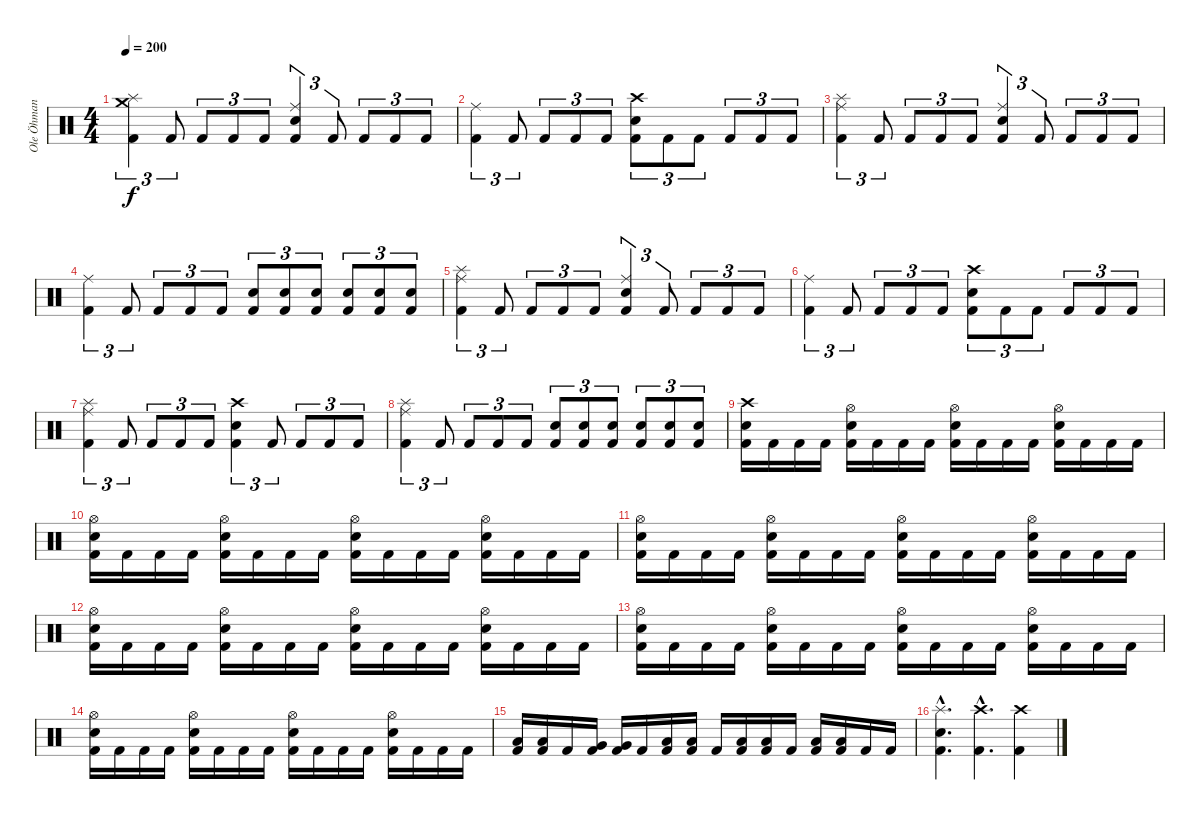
\track ("Ole Öhman" "Ole Öhman") {instrument percussion}
\staff {score}
\articulation defaults
\ts (4 4)
\tempo 200
\clef neutral
\ks c
("Crash medium (hit)" "Splash (hit)" "Kick (hit) 2").4{tu (3 2) dy f} "Kick (hit) 2".8{tu (3 2)} "Kick (hit) 2".8{tu (3 2)} "Kick (hit) 2".8{tu (3 2)} "Kick (hit) 2".8{tu (3 2)} ("Ride (middle)" "Snare (hit) 2" "Kick (hit) 2").4{tu (3 2)} "Kick (hit) 2".8{tu (3 2)} "Kick (hit) 2".8{tu (3 2)} "Kick (hit) 2".8{tu (3 2)} "Kick (hit) 2".8{tu (3 2)} |
("Ride (middle)" "Kick (hit) 2").4{tu (3 2)} "Kick (hit) 2".8{tu (3 2)} "Kick (hit) 2".8{tu (3 2)} "Kick (hit) 2".8{tu (3 2)} "Kick (hit) 2".8{tu (3 2)} ("Crash high (hit)" "Snare (hit) 2" "Kick (hit) 2").8{tu (3 2)} "Kick (hit) 2".8{tu (3 2)} "Kick (hit) 2".8{tu (3 2)} "Kick (hit) 2".8{tu (3 2)} "Kick (hit) 2".8{tu (3 2)} "Kick (hit) 2".8{tu (3 2)} |
("Splash (hit)" "Ride (middle)" "Kick (hit) 2").4{tu (3 2)} "Kick (hit) 2".8{tu (3 2)} "Kick (hit) 2".8{tu (3 2)} "Kick (hit) 2".8{tu (3 2)} "Kick (hit) 2".8{tu (3 2)} ("Ride (middle)" "Snare (hit) 2" "Kick (hit) 2").4{tu (3 2)} "Kick (hit) 2".8{tu (3 2)} "Kick (hit) 2".8{tu (3 2)} "Kick (hit) 2".8{tu (3 2)} "Kick (hit) 2".8{tu (3 2)} |
("Ride (middle)" "Kick (hit) 2").4{tu (3 2)} "Kick (hit) 2".8{tu (3 2)} "Kick (hit) 2".8{tu (3 2)} "Kick (hit) 2".8{tu (3 2)} "Kick (hit) 2".8{tu (3 2)} ("Snare (hit) 2" "Kick (hit) 2").8{tu (3 2)} ("Snare (hit) 2" "Kick (hit) 2").8{tu (3 2)} ("Snare (hit) 2" "Kick (hit) 2").8{tu (3 2)} ("Snare (hit) 2" "Kick (hit) 2").8{tu (3 2)} ("Snare (hit) 2" "Kick (hit) 2").8{tu (3 2)} ("Snare (hit) 2" "Kick (hit) 2").8{tu (3 2)} |
("Splash (hit)" "Ride (middle)" "Kick (hit) 2").4{tu (3 2)} "Kick (hit) 2".8{tu (3 2)} "Kick (hit) 2".8{tu (3 2)} "Kick (hit) 2".8{tu (3 2)} "Kick (hit) 2".8{tu (3 2)} ("Ride (middle)" "Snare (hit) 2" "Kick (hit) 2").4{tu (3 2)} "Kick (hit) 2".8{tu (3 2)} "Kick (hit) 2".8{tu (3 2)} "Kick (hit) 2".8{tu (3 2)} "Kick (hit) 2".8{tu (3 2)} |
("Ride (middle)" "Kick (hit) 2").4{tu (3 2)} "Kick (hit) 2".8{tu (3 2)} "Kick (hit) 2".8{tu (3 2)} "Kick (hit) 2".8{tu (3 2)} "Kick (hit) 2".8{tu (3 2)} ("Crash high (hit)" "Snare (hit) 2" "Kick (hit) 2").8{tu (3 2)} "Kick (hit) 2".8{tu (3 2)} "Kick (hit) 2".8{tu (3 2)} "Kick (hit) 2".8{tu (3 2)} "Kick (hit) 2".8{tu (3 2)} "Kick (hit) 2".8{tu (3 2)} |
("Splash (hit)" "Ride (middle)" "Kick (hit) 2").4{tu (3 2)} "Kick (hit) 2".8{tu (3 2)} "Kick (hit) 2".8{tu (3 2)} "Kick (hit) 2".8{tu (3 2)} "Kick (hit) 2".8{tu (3 2)} ("Crash high (hit)" "Snare (hit) 2" "Kick (hit) 2").4{tu (3 2)} "Kick (hit) 2".8{tu (3 2)} "Kick (hit) 2".8{tu (3 2)} "Kick (hit) 2".8{tu (3 2)} "Kick (hit) 2".8{tu (3 2)} |
("Splash (hit)" "Ride (middle)" "Kick (hit) 2").4{tu (3 2)} "Kick (hit) 2".8{tu (3 2)} "Kick (hit) 2".8{tu (3 2)} "Kick (hit) 2".8{tu (3 2)} "Kick (hit) 2".8{tu (3 2)} ("Snare (hit) 2" "Kick (hit) 2").8{tu (3 2)} ("Snare (hit) 2" "Kick (hit) 2").8{tu (3 2)} ("Snare (hit) 2" "Kick (hit) 2").8{tu (3 2)} ("Snare (hit) 2" "Kick (hit) 2").8{tu (3 2)} ("Snare (hit) 2" "Kick (hit) 2").8{tu (3 2)} ("Snare (hit) 2" "Kick (hit) 2").8{tu (3 2)} |
("Crash high (hit)" "Snare (hit) 2" "Kick (hit) 2").16 "Kick (hit) 2".16 "Kick (hit) 2".16 "Kick (hit) 2".16 ("Hi-Hat (open)" "Snare (hit) 2" "Kick (hit) 2").16 "Kick (hit) 2".16 "Kick (hit) 2".16 "Kick (hit) 2".16 ("Hi-Hat (open)" "Snare (hit) 2" "Kick (hit) 2").16 "Kick (hit) 2".16 "Kick (hit) 2".16 "Kick (hit) 2".16 ("Snare (hit) 2" "Hi-Hat (open)" "Kick (hit) 2").16 "Kick (hit) 2".16 "Kick (hit) 2".16 "Kick (hit) 2".16 |
("Hi-Hat (open)" "Snare (hit) 2" "Kick (hit) 2").16 "Kick (hit) 2".16 "Kick (hit) 2".16 "Kick (hit) 2".16 ("Hi-Hat (open)" "Snare (hit) 2" "Kick (hit) 2").16 "Kick (hit) 2".16 "Kick (hit) 2".16 "Kick (hit) 2".16 ("Hi-Hat (open)" "Snare (hit) 2" "Kick (hit) 2").16 "Kick (hit) 2".16 "Kick (hit) 2".16 "Kick (hit) 2".16 ("Snare (hit) 2" "Hi-Hat (open)" "Kick (hit) 2").16 "Kick (hit) 2".16 "Kick (hit) 2".16 "Kick (hit) 2".16 |
("Hi-Hat (open)" "Snare (hit) 2" "Kick (hit) 2").16 "Kick (hit) 2".16 "Kick (hit) 2".16 "Kick (hit) 2".16 ("Hi-Hat (open)" "Snare (hit) 2" "Kick (hit) 2").16 "Kick (hit) 2".16 "Kick (hit) 2".16 "Kick (hit) 2".16 ("Hi-Hat (open)" "Snare (hit) 2" "Kick (hit) 2").16 "Kick (hit) 2".16 "Kick (hit) 2".16 "Kick (hit) 2".16 ("Snare (hit) 2" "Hi-Hat (open)" "Kick (hit) 2").16 "Kick (hit) 2".16 "Kick (hit) 2".16 "Kick (hit) 2".16 |
("Hi-Hat (open)" "Snare (hit) 2" "Kick (hit) 2").16 "Kick (hit) 2".16 "Kick (hit) 2".16 "Kick (hit) 2".16 ("Hi-Hat (open)" "Snare (hit) 2" "Kick (hit) 2").16 "Kick (hit) 2".16 "Kick (hit) 2".16 "Kick (hit) 2".16 ("Hi-Hat (open)" "Snare (hit) 2" "Kick (hit) 2").16 "Kick (hit) 2".16 "Kick (hit) 2".16 "Kick (hit) 2".16 ("Snare (hit) 2" "Hi-Hat (open)" "Kick (hit) 2").16 "Kick (hit) 2".16 "Kick (hit) 2".16 "Kick (hit) 2".16 |
("Hi-Hat (open)" "Snare (hit) 2" "Kick (hit) 2").16 "Kick (hit) 2".16 "Kick (hit) 2".16 "Kick (hit) 2".16 ("Hi-Hat (open)" "Snare (hit) 2" "Kick (hit) 2").16 "Kick (hit) 2".16 "Kick (hit) 2".16 "Kick (hit) 2".16 ("Hi-Hat (open)" "Snare (hit) 2" "Kick (hit) 2").16 "Kick (hit) 2".16 "Kick (hit) 2".16 "Kick (hit) 2".16 ("Snare (hit) 2" "Hi-Hat (open)" "Kick (hit) 2").16 "Kick (hit) 2".16 "Kick (hit) 2".16 "Kick (hit) 2".16 |
("Hi-Hat (open)" "Snare (hit) 2" "Kick (hit) 2").16 "Kick (hit) 2".16 "Kick (hit) 2".16 "Kick (hit) 2".16 ("Hi-Hat (open)" "Snare (hit) 2" "Kick (hit) 2").16 "Kick (hit) 2".16 "Kick (hit) 2".16 "Kick (hit) 2".16 ("Hi-Hat (open)" "Snare (hit) 2" "Kick (hit) 2").16 "Kick (hit) 2".16 "Kick (hit) 2".16 "Kick (hit) 2".16 ("Snare (hit) 2" "Hi-Hat (open)" "Kick (hit) 2").16 "Kick (hit) 2".16 "Kick (hit) 2".16 "Kick (hit) 2".16 |
("Low Tom (hit)" "Kick (hit) 2").16 ("Low Tom (hit)" "Kick (hit) 2").16 "Kick (hit) 2".16 ("Very Low Tom (hit)" "Kick (hit) 2").16 ("Very Low Tom (hit)" "Kick (hit) 2").16 "Kick (hit) 2".16 ("Low Floor Tom (hit)" "Kick (hit) 2").16 ("Low Floor Tom (hit)" "Kick (hit) 2").16 "Kick (hit) 2".16 ("Low Floor Tom (hit)" "Kick (hit) 2").16 ("Low Floor Tom (hit)" "Kick (hit) 2").16 "Kick (hit) 2".16 ("Low Floor Tom (hit)" "Kick (hit) 2").16 ("Low Floor Tom (hit)" "Kick (hit) 2").16 "Kick (hit) 2".16 "Kick (hit) 2".16 |
("Splash (hit)"{hac} "Snare (hit) 2"{hac} "Kick (hit) 2"{hac}).4{d} ("Crash high (hit)"{hac} "Kick (hit) 2"{hac}).4{d} ("Crash high (hit)" "Kick (hit) 2").4
